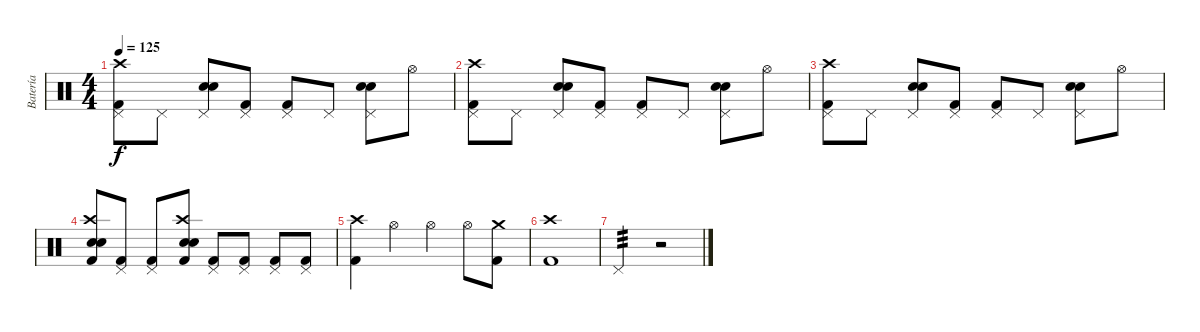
\track ("Batería" "Batería") {instrument percussion}
\staff {score}
\articulation defaults
\ts (4 4)
\tempo 125
\clef neutral
\ks c
("Kick (hit) 2" "Pedal Hi-Hat (hit)" "Crash high (hit)").8{dy f} "Pedal Hi-Hat (hit)".8 ("Electric Snare (hit)" "Pedal Hi-Hat (hit)" "Snare (hit) 2").8 ("Kick (hit) 2" "Pedal Hi-Hat (hit)").8 ("Kick (hit) 2" "Pedal Hi-Hat (hit)").8 "Pedal Hi-Hat (hit)".8 ("Electric Snare (hit)" "Pedal Hi-Hat (hit)" "Snare (hit) 2").8 "Hi-Hat (open)".8 |
("Kick (hit) 2" "Pedal Hi-Hat (hit)" "Crash high (hit)").8 "Pedal Hi-Hat (hit)".8 ("Electric Snare (hit)" "Pedal Hi-Hat (hit)" "Snare (hit) 2").8 ("Kick (hit) 2" "Pedal Hi-Hat (hit)").8 ("Kick (hit) 2" "Pedal Hi-Hat (hit)").8 "Pedal Hi-Hat (hit)".8 ("Electric Snare (hit)" "Pedal Hi-Hat (hit)" "Snare (hit) 2").8 "Hi-Hat (open)".8 |
("Kick (hit) 2" "Pedal Hi-Hat (hit)" "Crash high (hit)").8 "Pedal Hi-Hat (hit)".8 ("Electric Snare (hit)" "Pedal Hi-Hat (hit)" "Snare (hit) 2").8 ("Kick (hit) 2" "Pedal Hi-Hat (hit)").8 ("Kick (hit) 2" "Pedal Hi-Hat (hit)").8 "Pedal Hi-Hat (hit)".8 ("Electric Snare (hit)" "Pedal Hi-Hat (hit)" "Snare (hit) 2").8 "Hi-Hat (open)".8 |
("Kick (hit) 2" "Electric Snare (hit)" "Crash high (hit)" "Snare (hit) 2").8 ("Kick (hit) 2" "Pedal Hi-Hat (hit)").8 ("Kick (hit) 2" "Pedal Hi-Hat (hit)").8 ("Electric Snare (hit)" "Kick (hit) 2" "Snare (hit) 2" "Crash high (hit)").8 ("Kick (hit) 2" "Pedal Hi-Hat (hit)").8 ("Kick (hit) 2" "Pedal Hi-Hat (hit)").8 ("Kick (hit) 2" "Pedal Hi-Hat (hit)").8 ("Kick (hit) 2" "Pedal Hi-Hat (hit)").8 |
("Kick (hit) 2" "Crash high (hit)").4 "Hi-Hat (open)".4 "Hi-Hat (open)".4 "Hi-Hat (open)".8 ("Kick (hit) 2" "Crash medium (hit)").8 |
("Kick (hit) 2" "Crash high (hit)").1 |
"Pedal Hi-Hat (hit)".2{tp 3} r.2
